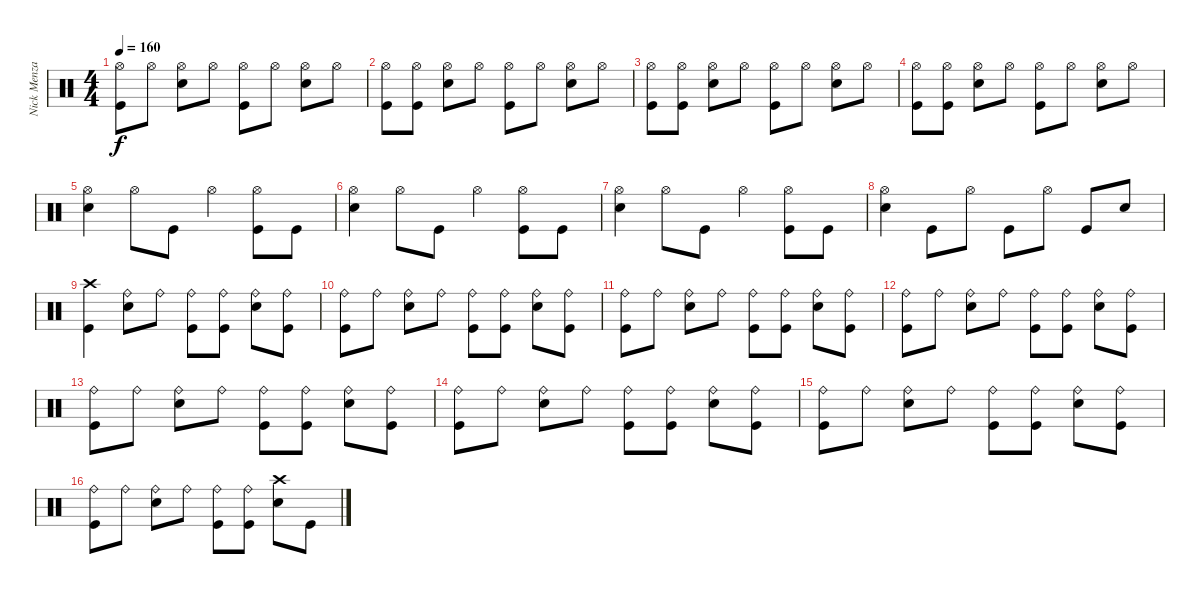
\track ("Nick Menza" "Nick Menza") {instrument percussion}
\staff {score}
\articulation defaults
\ts (4 4)
\tempo 160
\clef neutral
\ks c
("Hi-Hat (open)" "Kick (hit)").8{dy f} "Hi-Hat (open)".8 ("Hi-Hat (open)" "Snare (hit) 2").8 "Hi-Hat (open)".8 ("Hi-Hat (open)" "Kick (hit)").8 "Hi-Hat (open)".8 ("Hi-Hat (open)" "Snare (hit) 2").8 "Hi-Hat (open)".8 |
("Hi-Hat (open)" "Kick (hit)").8 ("Hi-Hat (open)" "Kick (hit)").8 ("Hi-Hat (open)" "Snare (hit) 2").8 "Hi-Hat (open)".8 ("Hi-Hat (open)" "Kick (hit)").8 "Hi-Hat (open)".8 ("Hi-Hat (open)" "Snare (hit) 2").8 "Hi-Hat (open)".8 |
("Hi-Hat (open)" "Kick (hit)").8 ("Hi-Hat (open)" "Kick (hit)").8 ("Hi-Hat (open)" "Snare (hit) 2").8 "Hi-Hat (open)".8 ("Hi-Hat (open)" "Kick (hit)").8 "Hi-Hat (open)".8 ("Hi-Hat (open)" "Snare (hit) 2").8 "Hi-Hat (open)".8 |
("Hi-Hat (open)" "Kick (hit)").8 ("Hi-Hat (open)" "Kick (hit)").8 ("Hi-Hat (open)" "Snare (hit) 2").8 "Hi-Hat (open)".8 ("Hi-Hat (open)" "Kick (hit)").8 "Hi-Hat (open)".8 ("Hi-Hat (open)" "Snare (hit) 2").8 "Hi-Hat (open)".8 |
("Hi-Hat (open)" "Snare (hit) 2").4 "Hi-Hat (open)".8 "Kick (hit)".8 "Hi-Hat (open)".4 ("Hi-Hat (open)" "Kick (hit)").8 "Kick (hit)".8 |
("Hi-Hat (open)" "Snare (hit) 2").4 "Hi-Hat (open)".8 "Kick (hit)".8 "Hi-Hat (open)".4 ("Hi-Hat (open)" "Kick (hit)").8 "Kick (hit)".8 |
("Hi-Hat (open)" "Snare (hit) 2").4 "Hi-Hat (open)".8 "Kick (hit)".8 "Hi-Hat (open)".4 ("Hi-Hat (open)" "Kick (hit)").8 "Kick (hit)".8 |
("Hi-Hat (open)" "Snare (hit) 2").4 "Kick (hit)".8 "Hi-Hat (open)".8 "Kick (hit)".8 "Hi-Hat (open)".8 "Kick (hit)".8 "Snare (hit) 2".8 |
("Crash high (hit)" "Kick (hit)").4 ("Ride (bell)" "Snare (hit) 2").8 "Ride (bell)".8 ("Ride (bell)" "Kick (hit)").8 ("Ride (bell)" "Kick (hit)").8 ("Ride (bell)" "Snare (hit) 2").8 ("Ride (bell)" "Kick (hit)").8 |
("Ride (bell)" "Kick (hit)").8 "Ride (bell)".8 ("Ride (bell)" "Snare (hit) 2").8 "Ride (bell)".8 ("Ride (bell)" "Kick (hit)").8 ("Ride (bell)" "Kick (hit)").8 ("Ride (bell)" "Snare (hit) 2").8 ("Ride (bell)" "Kick (hit)").8 |
("Ride (bell)" "Kick (hit)").8 "Ride (bell)".8 ("Ride (bell)" "Snare (hit) 2").8 "Ride (bell)".8 ("Ride (bell)" "Kick (hit)").8 ("Ride (bell)" "Kick (hit)").8 ("Ride (bell)" "Snare (hit) 2").8 ("Ride (bell)" "Kick (hit)").8 |
("Ride (bell)" "Kick (hit)").8 "Ride (bell)".8 ("Ride (bell)" "Snare (hit) 2").8 "Ride (bell)".8 ("Ride (bell)" "Kick (hit)").8 ("Ride (bell)" "Kick (hit)").8 ("Ride (bell)" "Snare (hit) 2").8 ("Ride (bell)" "Kick (hit)").8 |
("Ride (bell)" "Kick (hit)").8 "Ride (bell)".8 ("Ride (bell)" "Snare (hit) 2").8 "Ride (bell)".8 ("Ride (bell)" "Kick (hit)").8 ("Ride (bell)" "Kick (hit)").8 ("Ride (bell)" "Snare (hit) 2").8 ("Ride (bell)" "Kick (hit)").8 |
("Ride (bell)" "Kick (hit)").8 "Ride (bell)".8 ("Ride (bell)" "Snare (hit) 2").8 "Ride (bell)".8 ("Ride (bell)" "Kick (hit)").8 ("Ride (bell)" "Kick (hit)").8 ("Ride (bell)" "Snare (hit) 2").8 ("Ride (bell)" "Kick (hit)").8 |
("Ride (bell)" "Kick (hit)").8 "Ride (bell)".8 ("Ride (bell)" "Snare (hit) 2").8 "Ride (bell)".8 ("Ride (bell)" "Kick (hit)").8 ("Ride (bell)" "Kick (hit)").8 ("Ride (bell)" "Snare (hit) 2").8 ("Ride (bell)" "Kick (hit)").8 |
("Ride (bell)" "Kick (hit)").8 "Ride (bell)".8 ("Ride (bell)" "Snare (hit) 2").8 "Ride (bell)".8 ("Ride (bell)" "Kick (hit)").8 ("Ride (bell)" "Kick (hit)").8 ("Crash high (hit)" "Snare (hit) 2").8 "Kick (hit)".8
